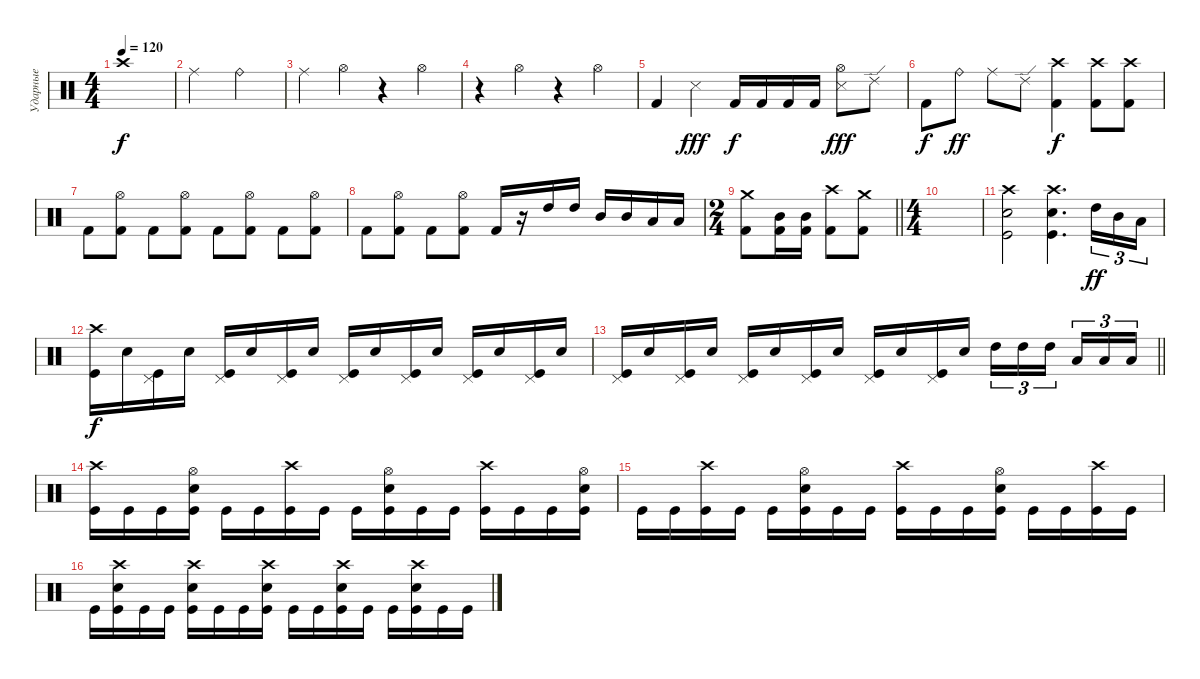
\track ("Ударные" "Ударные") {instrument percussion}
\staff {score}
\articulation defaults
\ts (4 4)
\tempo 120
\clef neutral
\ks c "Crash high (hit)".1{dy f}
|
"Ride (middle)".2 "Ride (bell)".2 |
"Ride (middle)".4 "Hi-Hat (open)".4 r.4 "Hi-Hat (open)".4 |
r.4 "Hi-Hat (open)".4 r.4 "Hi-Hat (open)".4 |
"Kick (hit) 2".4 "Snare (side stick) 3".4{dy fff} "Kick (hit) 2".16{dy f} "Kick (hit) 2".16 "Kick (hit) 2".16 "Kick (hit) 2".16 ("Hi-Hat (open)" "Snare (side stick) 3").8{dy fff} "Ride (edge) 2".8 |
"Kick (hit) 2".8{dy f} "Ride (bell)".8{dy ff} "Ride (middle)".8 "Ride (edge) 2".8 ("Crash high (hit)" "Kick (hit) 2").4{dy f} ("Crash high (hit)" "Kick (hit) 2").8 ("Crash high (hit)" "Kick (hit) 2").8 |
"Kick (hit) 2".8 ("Hi-Hat (open)" "Kick (hit) 2").8 "Kick (hit) 2".8 ("Hi-Hat (open)" "Kick (hit) 2").8 "Kick (hit) 2".8 ("Hi-Hat (open)" "Kick (hit) 2").8 "Kick (hit) 2".8 ("Hi-Hat (open)" "Kick (hit) 2").8 |
"Kick (hit) 2".8 ("Hi-Hat (open)" "Kick (hit) 2").8 "Kick (hit) 2".8 ("Hi-Hat (open)" "Kick (hit) 2").8 "Kick (hit) 2".16 r.16 "High Tom (hit)".16 "High Tom (hit)".16 "Mid Tom (hit)".16 "Mid Tom (hit)".16 "Low Tom (hit)".16 "Low Tom (hit)".16 |
\ts (2 4)
\barLineRight lightlight
("Crash medium (hit)" "Kick (hit) 2").8 ("Mid Tom (hit)" "Kick (hit) 2").16 ("Mid Tom (hit)" "Kick (hit) 2").16 ("Crash high (hit)" "Kick (hit) 2").8 ("Crash medium (hit)" "Kick (hit) 2").8 |
\ts (4 4)
|
("Crash high (hit)" "Kick (hit)" "Electric Snare (hit)").2 ("Crash high (hit)" "Kick (hit)" "Electric Snare (hit)").4{d} "High Tom (hit)".16{tu (3 2) dy ff} "Mid Tom (hit)".16{tu (3 2)} "Low Tom (hit)".16{tu (3 2)} |
("Kick (hit)" "Crash high (hit)").16{dy f} "Electric Snare (hit)".16 ("Kick (hit)" "Pedal Hi-Hat (hit)").16 "Electric Snare (hit)".16 ("Kick (hit)" "Pedal Hi-Hat (hit)").16 "Electric Snare (hit)".16 ("Kick (hit)" "Pedal Hi-Hat (hit)").16 "Electric Snare (hit)".16 ("Kick (hit)" "Pedal Hi-Hat (hit)").16 "Electric Snare (hit)".16 ("Kick (hit)" "Pedal Hi-Hat (hit)").16 "Electric Snare (hit)".16 ("Kick (hit)" "Pedal Hi-Hat (hit)").16 "Electric Snare (hit)".16 ("Kick (hit)" "Pedal Hi-Hat (hit)").16 "Electric Snare (hit)".16 |
\barLineRight lightlight
("Kick (hit)" "Pedal Hi-Hat (hit)").16 "Electric Snare (hit)".16 ("Kick (hit)" "Pedal Hi-Hat (hit)").16 "Electric Snare (hit)".16 ("Kick (hit)" "Pedal Hi-Hat (hit)").16 "Electric Snare (hit)".16 ("Kick (hit)" "Pedal Hi-Hat (hit)").16 "Electric Snare (hit)".16 ("Kick (hit)" "Pedal Hi-Hat (hit)").16 "Electric Snare (hit)".16 ("Kick (hit)" "Pedal Hi-Hat (hit)").16 "Electric Snare (hit)".16 "High Tom (hit)".16{tu (3 2)} "High Tom (hit)".16{tu (3 2)} "High Tom (hit)".16{tu (3 2) beam splitsecondary} "Low Tom (hit)".16{tu (3 2)} "Low Tom (hit)".16{tu (3 2)} "Low Tom (hit)".16{tu (3 2)} |
("Crash high (hit)" "Kick (hit)").16 "Kick (hit)".16 "Kick (hit)".16 ("Hi-Hat (open)" "Kick (hit)" "Electric Snare (hit)").16 "Kick (hit)".16 "Kick (hit)".16 ("Crash high (hit)" "Kick (hit)").16 "Kick (hit)".16 "Kick (hit)".16 ("Hi-Hat (open)" "Kick (hit)" "Electric Snare (hit)").16 "Kick (hit)".16 "Kick (hit)".16 ("Crash high (hit)" "Kick (hit)").16 "Kick (hit)".16 "Kick (hit)".16 ("Hi-Hat (open)" "Kick (hit)" "Electric Snare (hit)").16 |
"Kick (hit)".16 "Kick (hit)".16 ("Crash high (hit)" "Kick (hit)").16 "Kick (hit)".16 "Kick (hit)".16 ("Hi-Hat (open)" "Kick (hit)" "Electric Snare (hit)").16 "Kick (hit)".16 "Kick (hit)".16 ("Crash high (hit)" "Kick (hit)").16 "Kick (hit)".16 "Kick (hit)".16 ("Electric Snare (hit)" "Kick (hit)" "Hi-Hat (open)").16 "Kick (hit)".16 "Kick (hit)".16 ("Crash high (hit)" "Kick (hit)").16 "Kick (hit)".16 |
"Kick (hit)".16 ("Crash high (hit)" "Electric Snare (hit)" "Kick (hit)").16 "Kick (hit)".16 "Kick (hit)".16 ("Crash high (hit)" "Electric Snare (hit)" "Kick (hit)").16 "Kick (hit)".16 "Kick (hit)".16 ("Crash high (hit)" "Electric Snare (hit)" "Kick (hit)").16 "Kick (hit)".16 "Kick (hit)".16 ("Crash high (hit)" "Electric Snare (hit)" "Kick (hit)").16 "Kick (hit)".16 "Kick (hit)".16 ("Crash high (hit)" "Electric Snare (hit)" "Kick (hit)").16 "Kick (hit)".16 "Kick (hit)".16
